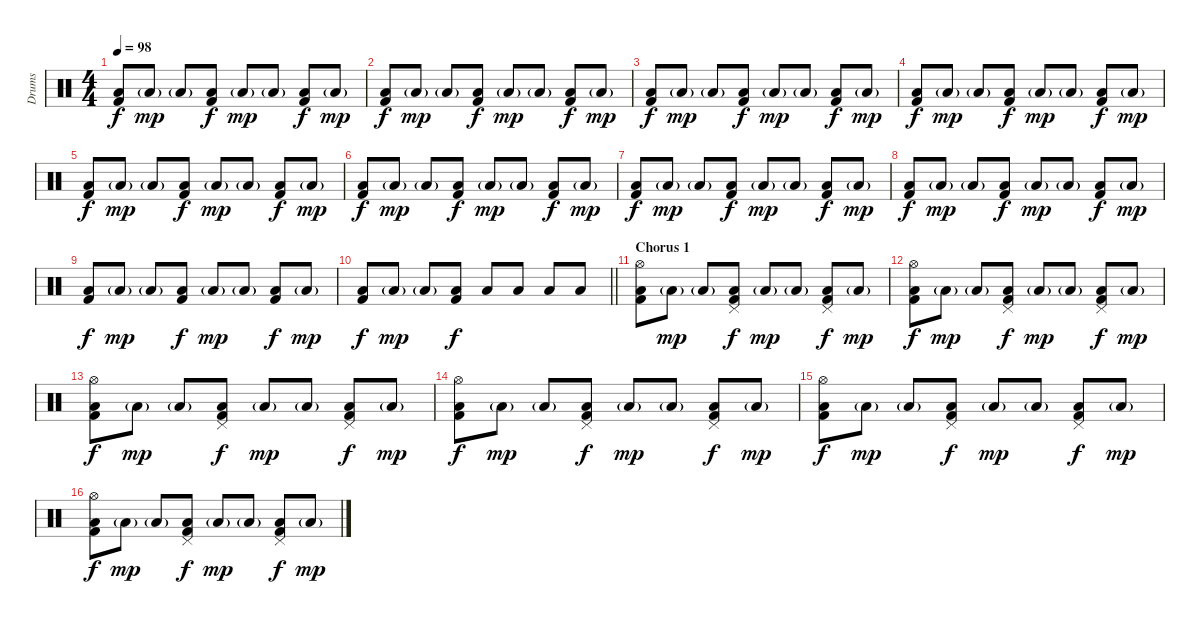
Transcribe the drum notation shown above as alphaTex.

\track ("Drums" "Drums") {instrument percussion}
\staff {score}
\articulation defaults
\ts (4 4)
\tempo 98
\clef neutral
\ks c
("Kick (hit) 2" "Low Tom (hit)").8{dy f} "Low Tom (hit)"{g}.8{dy mp} "Low Tom (hit)"{g}.8 ("Kick (hit) 2" "Low Tom (hit)").8{dy f} "Low Tom (hit)"{g}.8{dy mp} "Low Tom (hit)"{g}.8 ("Kick (hit) 2" "Low Tom (hit)").8{dy f} "Low Tom (hit)"{g}.8{dy mp} |
("Kick (hit) 2" "Low Tom (hit)").8{dy f} "Low Tom (hit)"{g}.8{dy mp} "Low Tom (hit)"{g}.8 ("Kick (hit) 2" "Low Tom (hit)").8{dy f} "Low Tom (hit)"{g}.8{dy mp} "Low Tom (hit)"{g}.8 ("Kick (hit) 2" "Low Tom (hit)").8{dy f} "Low Tom (hit)"{g}.8{dy mp} |
("Kick (hit) 2" "Low Tom (hit)").8{dy f} "Low Tom (hit)"{g}.8{dy mp} "Low Tom (hit)"{g}.8 ("Kick (hit) 2" "Low Tom (hit)").8{dy f} "Low Tom (hit)"{g}.8{dy mp} "Low Tom (hit)"{g}.8 ("Kick (hit) 2" "Low Tom (hit)").8{dy f} "Low Tom (hit)"{g}.8{dy mp} |
("Kick (hit) 2" "Low Tom (hit)").8{dy f} "Low Tom (hit)"{g}.8{dy mp} "Low Tom (hit)"{g}.8 ("Kick (hit) 2" "Low Tom (hit)").8{dy f} "Low Tom (hit)"{g}.8{dy mp} "Low Tom (hit)"{g}.8 ("Kick (hit) 2" "Low Tom (hit)").8{dy f} "Low Tom (hit)"{g}.8{dy mp} |
("Kick (hit) 2" "Low Tom (hit)").8{dy f} "Low Tom (hit)"{g}.8{dy mp} "Low Tom (hit)"{g}.8 ("Kick (hit) 2" "Low Tom (hit)").8{dy f} "Low Tom (hit)"{g}.8{dy mp} "Low Tom (hit)"{g}.8 ("Kick (hit) 2" "Low Tom (hit)").8{dy f} "Low Tom (hit)"{g}.8{dy mp} |
("Kick (hit) 2" "Low Tom (hit)").8{dy f} "Low Tom (hit)"{g}.8{dy mp} "Low Tom (hit)"{g}.8 ("Kick (hit) 2" "Low Tom (hit)").8{dy f} "Low Tom (hit)"{g}.8{dy mp} "Low Tom (hit)"{g}.8 ("Kick (hit) 2" "Low Tom (hit)").8{dy f} "Low Tom (hit)"{g}.8{dy mp} |
("Kick (hit) 2" "Low Tom (hit)").8{dy f} "Low Tom (hit)"{g}.8{dy mp} "Low Tom (hit)"{g}.8 ("Kick (hit) 2" "Low Tom (hit)").8{dy f} "Low Tom (hit)"{g}.8{dy mp} "Low Tom (hit)"{g}.8 ("Kick (hit) 2" "Low Tom (hit)").8{dy f} "Low Tom (hit)"{g}.8{dy mp} |
("Kick (hit) 2" "Low Tom (hit)").8{dy f} "Low Tom (hit)"{g}.8{dy mp} "Low Tom (hit)"{g}.8 ("Kick (hit) 2" "Low Tom (hit)").8{dy f} "Low Tom (hit)"{g}.8{dy mp} "Low Tom (hit)"{g}.8 ("Kick (hit) 2" "Low Tom (hit)").8{dy f} "Low Tom (hit)"{g}.8{dy mp} |
("Kick (hit) 2" "Low Tom (hit)").8{dy f} "Low Tom (hit)"{g}.8{dy mp} "Low Tom (hit)"{g}.8 ("Kick (hit) 2" "Low Tom (hit)").8{dy f} "Low Tom (hit)"{g}.8{dy mp} "Low Tom (hit)"{g}.8 ("Kick (hit) 2" "Low Tom (hit)").8{dy f} "Low Tom (hit)"{g}.8{dy mp} |
\barLineRight lightlight
("Kick (hit) 2" "Low Tom (hit)").8{dy f} "Low Tom (hit)"{g}.8{dy mp} "Low Tom (hit)"{g}.8 ("Kick (hit) 2" "Low Tom (hit)").8{dy f} "Low Tom (hit)".8 "Low Tom (hit)".8 "Low Tom (hit)".8 "Low Tom (hit)".8 |
\section ("" "Chorus 1")
("Hi-Hat (open)" "Kick (hit) 2" "Low Tom (hit)").8 "Low Tom (hit)"{g}.8{dy mp} "Low Tom (hit)"{g}.8 ("Pedal Hi-Hat (hit)" "Kick (hit) 2" "Low Tom (hit)").8{dy f} "Low Tom (hit)"{g}.8{dy mp} "Low Tom (hit)"{g}.8 ("Pedal Hi-Hat (hit)" "Kick (hit) 2" "Low Tom (hit)").8{dy f} "Low Tom (hit)"{g}.8{dy mp} |
("Hi-Hat (open)" "Kick (hit) 2" "Low Tom (hit)").8{dy f} "Low Tom (hit)"{g}.8{dy mp} "Low Tom (hit)"{g}.8 ("Pedal Hi-Hat (hit)" "Kick (hit) 2" "Low Tom (hit)").8{dy f} "Low Tom (hit)"{g}.8{dy mp} "Low Tom (hit)"{g}.8 ("Pedal Hi-Hat (hit)" "Kick (hit) 2" "Low Tom (hit)").8{dy f} "Low Tom (hit)"{g}.8{dy mp} |
("Hi-Hat (open)" "Kick (hit) 2" "Low Tom (hit)").8{dy f} "Low Tom (hit)"{g}.8{dy mp} "Low Tom (hit)"{g}.8 ("Pedal Hi-Hat (hit)" "Kick (hit) 2" "Low Tom (hit)").8{dy f} "Low Tom (hit)"{g}.8{dy mp} "Low Tom (hit)"{g}.8 ("Pedal Hi-Hat (hit)" "Kick (hit) 2" "Low Tom (hit)").8{dy f} "Low Tom (hit)"{g}.8{dy mp} |
("Hi-Hat (open)" "Kick (hit) 2" "Low Tom (hit)").8{dy f} "Low Tom (hit)"{g}.8{dy mp} "Low Tom (hit)"{g}.8 ("Pedal Hi-Hat (hit)" "Kick (hit) 2" "Low Tom (hit)").8{dy f} "Low Tom (hit)"{g}.8{dy mp} "Low Tom (hit)"{g}.8 ("Pedal Hi-Hat (hit)" "Kick (hit) 2" "Low Tom (hit)").8{dy f} "Low Tom (hit)"{g}.8{dy mp} |
("Hi-Hat (open)" "Kick (hit) 2" "Low Tom (hit)").8{dy f} "Low Tom (hit)"{g}.8{dy mp} "Low Tom (hit)"{g}.8 ("Pedal Hi-Hat (hit)" "Kick (hit) 2" "Low Tom (hit)").8{dy f} "Low Tom (hit)"{g}.8{dy mp} "Low Tom (hit)"{g}.8 ("Pedal Hi-Hat (hit)" "Kick (hit) 2" "Low Tom (hit)").8{dy f} "Low Tom (hit)"{g}.8{dy mp} |
("Hi-Hat (open)" "Kick (hit) 2" "Low Tom (hit)").8{dy f} "Low Tom (hit)"{g}.8{dy mp} "Low Tom (hit)"{g}.8 ("Pedal Hi-Hat (hit)" "Kick (hit) 2" "Low Tom (hit)").8{dy f} "Low Tom (hit)"{g}.8{dy mp} "Low Tom (hit)"{g}.8 ("Pedal Hi-Hat (hit)" "Kick (hit) 2" "Low Tom (hit)").8{dy f} "Low Tom (hit)"{g}.8{dy mp}
